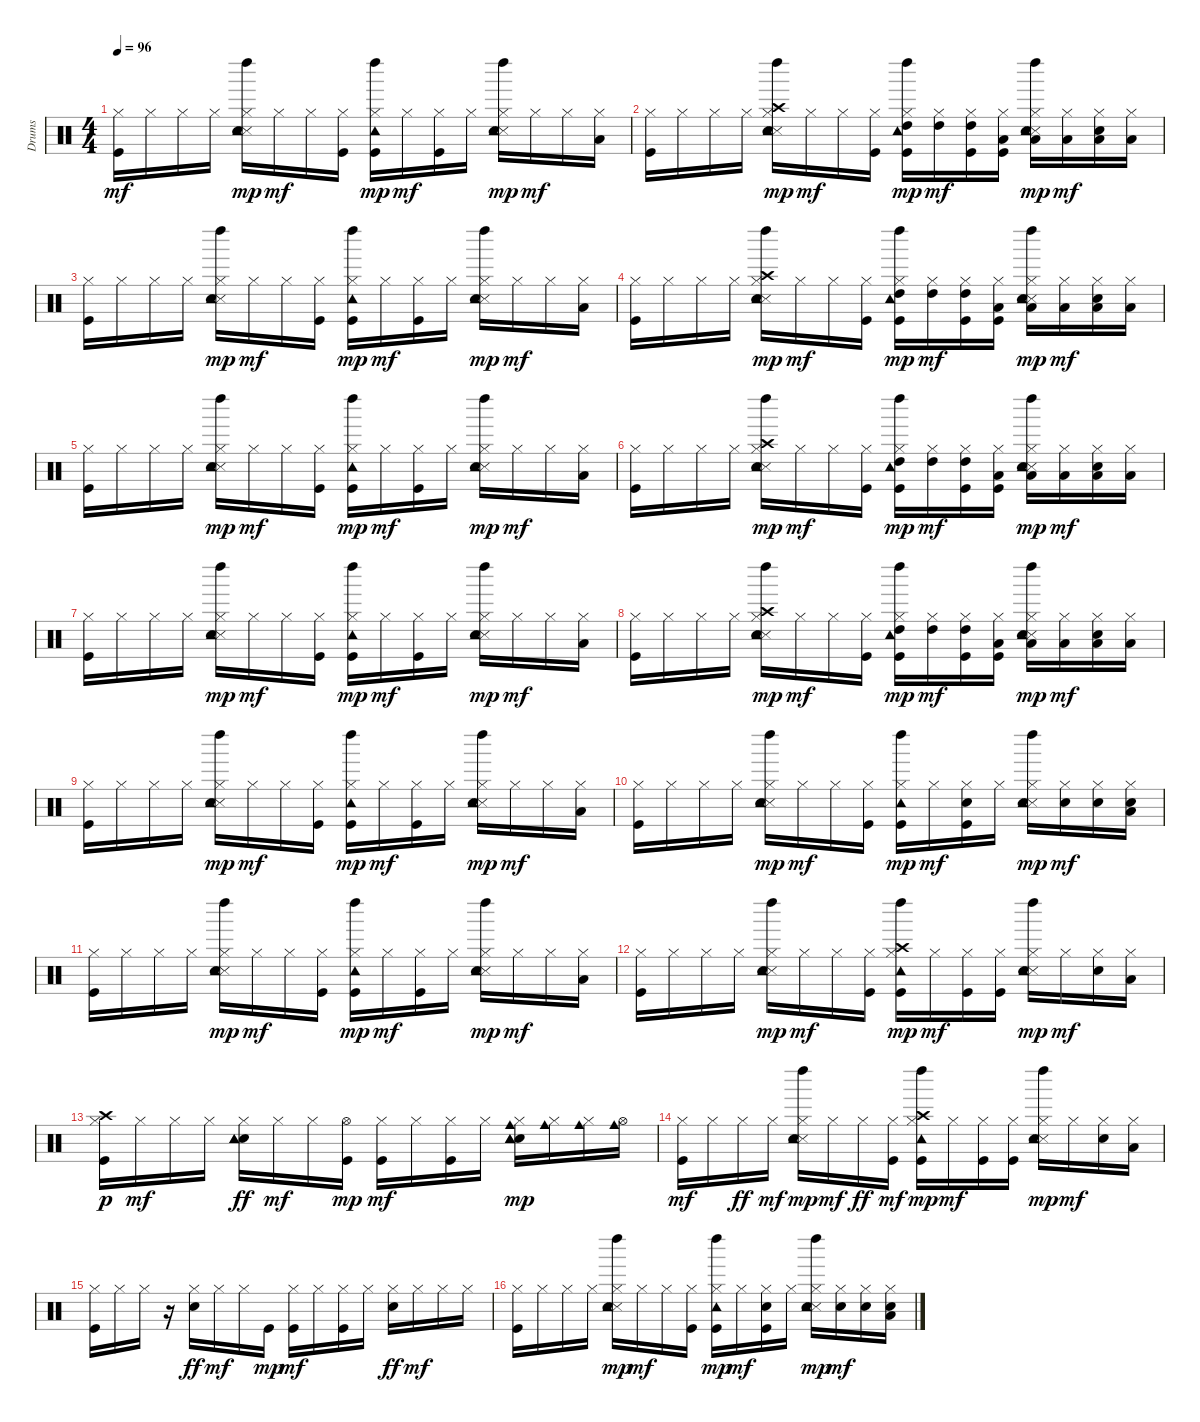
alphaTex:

\track ("Drums" "Drums") {instrument percussion}
\staff {score}
\articulation defaults
\ts (4 4)
\tempo 96
\clef neutral
\ks c
("Kick (hit)" "Hi-Hat (closed)").16{dy mf} "Hi-Hat (closed)".16 "Hi-Hat (closed)".16 "Hi-Hat (closed)".16 ("Snare (side stick) 3" "Snare (hit) 2" "Hi-Hat (closed)" "Tambourine (hit)" "Left Maraca (hit)").16{dy mp} "Hi-Hat (closed)".16{dy mf} "Hi-Hat (closed)".16 ("Kick (hit)" "Hi-Hat (closed)").16 ("Kick (hit)" "Hi-Hat (closed)" "Tambourine (hit)" "Left Maraca (hit)").16{dy mp} "Hi-Hat (closed)".16{dy mf} ("Kick (hit)" "Hi-Hat (closed)").16 "Hi-Hat (closed)".16 ("Snare (side stick) 3" "Snare (hit) 2" "Hi-Hat (closed)" "Tambourine (hit)" "Left Maraca (hit)").16{dy mp} "Hi-Hat (closed)".16{dy mf} "Hi-Hat (closed)".16 ("Low Floor Tom (hit)" "Hi-Hat (closed)").16 |
("Kick (hit)" "Hi-Hat (closed)").16 "Hi-Hat (closed)".16 "Hi-Hat (closed)".16 "Hi-Hat (closed)".16 ("Snare (side stick) 3" "Snare (hit) 2" "Hi-Hat (closed)" "Crash high (hit)" "Tambourine (hit)" "Left Maraca (hit)").16{dy mp} "Hi-Hat (closed)".16{dy mf} "Hi-Hat (closed)".16 ("Kick (hit)" "Hi-Hat (closed)").16 ("Kick (hit)" "Hi-Hat (closed)" "High Tom (hit)" "Tambourine (hit)" "Left Maraca (hit)").16{dy mp} ("Hi-Hat (closed)" "High Tom (hit)").16{dy mf} ("Kick (hit)" "Hi-Hat (closed)" "High Tom (hit)").16 ("Kick (hit)" "Hi-Hat (closed)" "Low Tom (hit)").16 ("Snare (side stick) 3" "Snare (hit) 2" "Hi-Hat (closed)" "Low Tom (hit)" "Tambourine (hit)" "Left Maraca (hit)").16{dy mp} ("Hi-Hat (closed)" "Low Tom (hit)").16{dy mf} ("Snare (hit) 2" "Low Floor Tom (hit)" "Hi-Hat (closed)").16 ("Low Floor Tom (hit)" "Hi-Hat (closed)").16 |
("Kick (hit)" "Hi-Hat (closed)").16 "Hi-Hat (closed)".16 "Hi-Hat (closed)".16 "Hi-Hat (closed)".16 ("Snare (side stick) 3" "Snare (hit) 2" "Hi-Hat (closed)" "Tambourine (hit)" "Left Maraca (hit)").16{dy mp} "Hi-Hat (closed)".16{dy mf} "Hi-Hat (closed)".16 ("Kick (hit)" "Hi-Hat (closed)").16 ("Kick (hit)" "Hi-Hat (closed)" "Tambourine (hit)" "Left Maraca (hit)").16{dy mp} "Hi-Hat (closed)".16{dy mf} ("Kick (hit)" "Hi-Hat (closed)").16 "Hi-Hat (closed)".16 ("Snare (side stick) 3" "Snare (hit) 2" "Hi-Hat (closed)" "Tambourine (hit)" "Left Maraca (hit)").16{dy mp} "Hi-Hat (closed)".16{dy mf} "Hi-Hat (closed)".16 ("Low Floor Tom (hit)" "Hi-Hat (closed)").16 |
("Kick (hit)" "Hi-Hat (closed)").16 "Hi-Hat (closed)".16 "Hi-Hat (closed)".16 "Hi-Hat (closed)".16 ("Snare (side stick) 3" "Snare (hit) 2" "Hi-Hat (closed)" "Crash high (hit)" "Tambourine (hit)" "Left Maraca (hit)").16{dy mp} "Hi-Hat (closed)".16{dy mf} "Hi-Hat (closed)".16 ("Kick (hit)" "Hi-Hat (closed)").16 ("Kick (hit)" "Hi-Hat (closed)" "High Tom (hit)" "Tambourine (hit)" "Left Maraca (hit)").16{dy mp} ("Hi-Hat (closed)" "High Tom (hit)").16{dy mf} ("Kick (hit)" "Hi-Hat (closed)" "High Tom (hit)").16 ("Kick (hit)" "Hi-Hat (closed)" "Low Tom (hit)").16 ("Snare (side stick) 3" "Snare (hit) 2" "Hi-Hat (closed)" "Low Tom (hit)" "Tambourine (hit)" "Left Maraca (hit)").16{dy mp} ("Hi-Hat (closed)" "Low Tom (hit)").16{dy mf} ("Snare (hit) 2" "Low Floor Tom (hit)" "Hi-Hat (closed)").16 ("Low Floor Tom (hit)" "Hi-Hat (closed)").16 |
("Kick (hit)" "Hi-Hat (closed)").16 "Hi-Hat (closed)".16 "Hi-Hat (closed)".16 "Hi-Hat (closed)".16 ("Snare (side stick) 3" "Snare (hit) 2" "Hi-Hat (closed)" "Tambourine (hit)" "Left Maraca (hit)").16{dy mp} "Hi-Hat (closed)".16{dy mf} "Hi-Hat (closed)".16 ("Kick (hit)" "Hi-Hat (closed)").16 ("Kick (hit)" "Hi-Hat (closed)" "Tambourine (hit)" "Left Maraca (hit)").16{dy mp} "Hi-Hat (closed)".16{dy mf} ("Kick (hit)" "Hi-Hat (closed)").16 "Hi-Hat (closed)".16 ("Snare (side stick) 3" "Snare (hit) 2" "Hi-Hat (closed)" "Tambourine (hit)" "Left Maraca (hit)").16{dy mp} "Hi-Hat (closed)".16{dy mf} "Hi-Hat (closed)".16 ("Low Floor Tom (hit)" "Hi-Hat (closed)").16 |
("Kick (hit)" "Hi-Hat (closed)").16 "Hi-Hat (closed)".16 "Hi-Hat (closed)".16 "Hi-Hat (closed)".16 ("Snare (side stick) 3" "Snare (hit) 2" "Hi-Hat (closed)" "Crash high (hit)" "Tambourine (hit)" "Left Maraca (hit)").16{dy mp} "Hi-Hat (closed)".16{dy mf} "Hi-Hat (closed)".16 ("Kick (hit)" "Hi-Hat (closed)").16 ("Kick (hit)" "Hi-Hat (closed)" "High Tom (hit)" "Tambourine (hit)" "Left Maraca (hit)").16{dy mp} ("Hi-Hat (closed)" "High Tom (hit)").16{dy mf} ("Kick (hit)" "Hi-Hat (closed)" "High Tom (hit)").16 ("Kick (hit)" "Hi-Hat (closed)" "Low Tom (hit)").16 ("Snare (side stick) 3" "Snare (hit) 2" "Hi-Hat (closed)" "Low Tom (hit)" "Tambourine (hit)" "Left Maraca (hit)").16{dy mp} ("Hi-Hat (closed)" "Low Tom (hit)").16{dy mf} ("Snare (hit) 2" "Low Floor Tom (hit)" "Hi-Hat (closed)").16 ("Low Floor Tom (hit)" "Hi-Hat (closed)").16 |
("Kick (hit)" "Hi-Hat (closed)").16 "Hi-Hat (closed)".16 "Hi-Hat (closed)".16 "Hi-Hat (closed)".16 ("Snare (side stick) 3" "Snare (hit) 2" "Hi-Hat (closed)" "Tambourine (hit)" "Left Maraca (hit)").16{dy mp} "Hi-Hat (closed)".16{dy mf} "Hi-Hat (closed)".16 ("Kick (hit)" "Hi-Hat (closed)").16 ("Kick (hit)" "Hi-Hat (closed)" "Tambourine (hit)" "Left Maraca (hit)").16{dy mp} "Hi-Hat (closed)".16{dy mf} ("Kick (hit)" "Hi-Hat (closed)").16 "Hi-Hat (closed)".16 ("Snare (side stick) 3" "Snare (hit) 2" "Hi-Hat (closed)" "Tambourine (hit)" "Left Maraca (hit)").16{dy mp} "Hi-Hat (closed)".16{dy mf} "Hi-Hat (closed)".16 ("Low Floor Tom (hit)" "Hi-Hat (closed)").16 |
("Kick (hit)" "Hi-Hat (closed)").16 "Hi-Hat (closed)".16 "Hi-Hat (closed)".16 "Hi-Hat (closed)".16 ("Snare (side stick) 3" "Snare (hit) 2" "Hi-Hat (closed)" "Crash high (hit)" "Tambourine (hit)" "Left Maraca (hit)").16{dy mp} "Hi-Hat (closed)".16{dy mf} "Hi-Hat (closed)".16 ("Kick (hit)" "Hi-Hat (closed)").16 ("Kick (hit)" "Hi-Hat (closed)" "High Tom (hit)" "Tambourine (hit)" "Left Maraca (hit)").16{dy mp} ("Hi-Hat (closed)" "High Tom (hit)").16{dy mf} ("Kick (hit)" "Hi-Hat (closed)" "High Tom (hit)").16 ("Kick (hit)" "Hi-Hat (closed)" "Low Tom (hit)").16 ("Snare (side stick) 3" "Snare (hit) 2" "Hi-Hat (closed)" "Low Tom (hit)" "Tambourine (hit)" "Left Maraca (hit)").16{dy mp} ("Hi-Hat (closed)" "Low Tom (hit)").16{dy mf} ("Snare (hit) 2" "Low Floor Tom (hit)" "Hi-Hat (closed)").16 ("Low Floor Tom (hit)" "Hi-Hat (closed)").16 |
("Kick (hit)" "Hi-Hat (closed)").16 "Hi-Hat (closed)".16 "Hi-Hat (closed)".16 "Hi-Hat (closed)".16 ("Snare (side stick) 3" "Snare (hit) 2" "Hi-Hat (closed)" "Tambourine (hit)" "Left Maraca (hit)").16{dy mp} "Hi-Hat (closed)".16{dy mf} "Hi-Hat (closed)".16 ("Kick (hit)" "Hi-Hat (closed)").16 ("Kick (hit)" "Hi-Hat (closed)" "Tambourine (hit)" "Left Maraca (hit)").16{dy mp} "Hi-Hat (closed)".16{dy mf} ("Kick (hit)" "Hi-Hat (closed)").16 "Hi-Hat (closed)".16 ("Snare (side stick) 3" "Snare (hit) 2" "Hi-Hat (closed)" "Tambourine (hit)" "Left Maraca (hit)").16{dy mp} "Hi-Hat (closed)".16{dy mf} "Hi-Hat (closed)".16 ("Low Floor Tom (hit)" "Hi-Hat (closed)").16 |
("Kick (hit)" "Hi-Hat (closed)").16 "Hi-Hat (closed)".16 "Hi-Hat (closed)".16 "Hi-Hat (closed)".16 ("Snare (side stick) 3" "Snare (hit) 2" "Hi-Hat (closed)" "Tambourine (hit)" "Left Maraca (hit)").16{dy mp} "Hi-Hat (closed)".16{dy mf} "Hi-Hat (closed)".16 ("Kick (hit)" "Hi-Hat (closed)").16 ("Kick (hit)" "Hi-Hat (closed)" "Tambourine (hit)" "Left Maraca (hit)").16{dy mp} "Hi-Hat (closed)".16{dy mf} ("Kick (hit)" "Snare (hit) 2" "Hi-Hat (closed)").16 "Hi-Hat (closed)".16 ("Snare (side stick) 3" "Snare (hit) 2" "Hi-Hat (closed)" "Tambourine (hit)" "Left Maraca (hit)").16{dy mp} ("Snare (hit) 2" "Hi-Hat (closed)").16{dy mf} ("Snare (hit) 2" "Hi-Hat (closed)").16 ("Snare (hit) 2" "Low Floor Tom (hit)" "Hi-Hat (closed)").16 |
("Kick (hit)" "Hi-Hat (closed)").16 "Hi-Hat (closed)".16 "Hi-Hat (closed)".16 "Hi-Hat (closed)".16 ("Snare (side stick) 3" "Snare (hit) 2" "Hi-Hat (closed)" "Tambourine (hit)" "Left Maraca (hit)").16{dy mp} "Hi-Hat (closed)".16{dy mf} "Hi-Hat (closed)".16 ("Kick (hit)" "Hi-Hat (closed)").16 ("Kick (hit)" "Hi-Hat (closed)" "Tambourine (hit)" "Left Maraca (hit)").16{dy mp} "Hi-Hat (closed)".16{dy mf} ("Kick (hit)" "Hi-Hat (closed)").16 "Hi-Hat (closed)".16 ("Snare (side stick) 3" "Snare (hit) 2" "Hi-Hat (closed)" "Tambourine (hit)" "Left Maraca (hit)").16{dy mp} "Hi-Hat (closed)".16{dy mf} "Hi-Hat (closed)".16 ("Low Floor Tom (hit)" "Hi-Hat (closed)").16 |
("Kick (hit)" "Hi-Hat (closed)").16 "Hi-Hat (closed)".16 "Hi-Hat (closed)".16 "Hi-Hat (closed)".16 ("Snare (side stick) 3" "Snare (hit) 2" "Hi-Hat (closed)" "Tambourine (hit)" "Left Maraca (hit)").16{dy mp} "Hi-Hat (closed)".16{dy mf} "Hi-Hat (closed)".16 ("Kick (hit)" "Hi-Hat (closed)").16 ("Kick (hit)" "Hi-Hat (closed)" "Crash high (hit)" "Tambourine (hit)" "Left Maraca (hit)").16{dy mp} "Hi-Hat (closed)".16{dy mf} ("Kick (hit)" "Hi-Hat (closed)").16 ("Kick (hit)" "Hi-Hat (closed)").16 ("Snare (side stick) 3" "Snare (hit) 2" "Hi-Hat (closed)" "Tambourine (hit)" "Left Maraca (hit)").16{dy mp} "Hi-Hat (closed)".16{dy mf} ("Snare (hit) 2" "Hi-Hat (closed)").16 ("Low Floor Tom (hit)" "Hi-Hat (closed)").16 |
("Kick (hit)" "Hi-Hat (closed)" "Crash high (hit)").16{dy p} "Hi-Hat (closed)".16{dy mf} "Hi-Hat (closed)".16 "Hi-Hat (closed)".16 ("Snare (hit) 2" "Hi-Hat (closed)" "Tambourine (hit)" "Tambourine (hit)").16{dy ff} "Hi-Hat (closed)".16{dy mf} "Hi-Hat (closed)".16 ("Kick (hit)" "Hi-Hat (open)").16{dy mp} ("Kick (hit)" "Hi-Hat (closed)").16{dy mf} "Hi-Hat (closed)".16 ("Kick (hit)" "Hi-Hat (closed)").16 "Hi-Hat (closed)".16 ("Snare (hit) 2" "Hi-Hat (closed)" "Tambourine (hit)" "Tambourine (hit)" "Cowbell medium (hit)").16{dy mp} ("Hi-Hat (closed)" "Cowbell medium (hit)").16 ("Hi-Hat (closed)" "Cowbell medium (hit)").16 ("Hi-Hat (open)" "Cowbell medium (hit)").16 |
("Kick (hit)" "Hi-Hat (closed)").16{dy mf} "Hi-Hat (closed)".16 "Hi-Hat (closed)".16{dy ff} "Hi-Hat (closed)".16{dy mf} ("Snare (side stick) 3" "Snare (hit) 2" "Hi-Hat (closed)" "Tambourine (hit)" "Left Maraca (hit)").16{dy mp} "Hi-Hat (closed)".16{dy mf} "Hi-Hat (closed)".16{dy ff} ("Kick (hit)" "Hi-Hat (closed)").16{dy mf} ("Kick (hit)" "Hi-Hat (closed)" "Crash high (hit)" "Tambourine (hit)" "Left Maraca (hit)").16{dy mp} "Hi-Hat (closed)".16{dy mf} ("Kick (hit)" "Hi-Hat (closed)").16 ("Kick (hit)" "Hi-Hat (closed)").16 ("Snare (side stick) 3" "Snare (hit) 2" "Hi-Hat (closed)" "Tambourine (hit)" "Left Maraca (hit)").16{dy mp} "Hi-Hat (closed)".16{dy mf} ("Snare (hit) 2" "Hi-Hat (closed)").16 ("Low Floor Tom (hit)" "Hi-Hat (closed)").16 |
("Kick (hit)" "Hi-Hat (closed)").16 "Hi-Hat (closed)".16 "Hi-Hat (closed)".16 r.16 ("Snare (hit) 2" "Hi-Hat (closed)").16{dy ff} "Hi-Hat (closed)".16{dy mf} "Hi-Hat (closed)".16 "Kick (hit)".16{dy mp} ("Kick (hit)" "Hi-Hat (closed)").16{dy mf} "Hi-Hat (closed)".16 ("Kick (hit)" "Hi-Hat (closed)").16 "Hi-Hat (closed)".16 ("Snare (hit) 2" "Hi-Hat (closed)").16{dy ff} "Hi-Hat (closed)".16{dy mf} "Hi-Hat (closed)".16 "Hi-Hat (closed)".16 |
("Kick (hit)" "Hi-Hat (closed)").16 "Hi-Hat (closed)".16 "Hi-Hat (closed)".16 "Hi-Hat (closed)".16 ("Snare (side stick) 3" "Snare (hit) 2" "Hi-Hat (closed)" "Tambourine (hit)" "Left Maraca (hit)").16{dy mp} "Hi-Hat (closed)".16{dy mf} "Hi-Hat (closed)".16 ("Kick (hit)" "Hi-Hat (closed)").16 ("Kick (hit)" "Hi-Hat (closed)" "Tambourine (hit)" "Left Maraca (hit)").16{dy mp} "Hi-Hat (closed)".16{dy mf} ("Kick (hit)" "Snare (hit) 2" "Hi-Hat (closed)").16 "Hi-Hat (closed)".16 ("Snare (side stick) 3" "Snare (hit) 2" "Hi-Hat (closed)" "Tambourine (hit)" "Left Maraca (hit)").16{dy mp} ("Snare (hit) 2" "Hi-Hat (closed)").16{dy mf} ("Snare (hit) 2" "Hi-Hat (closed)").16 ("Snare (hit) 2" "Low Floor Tom (hit)" "Hi-Hat (closed)").16
